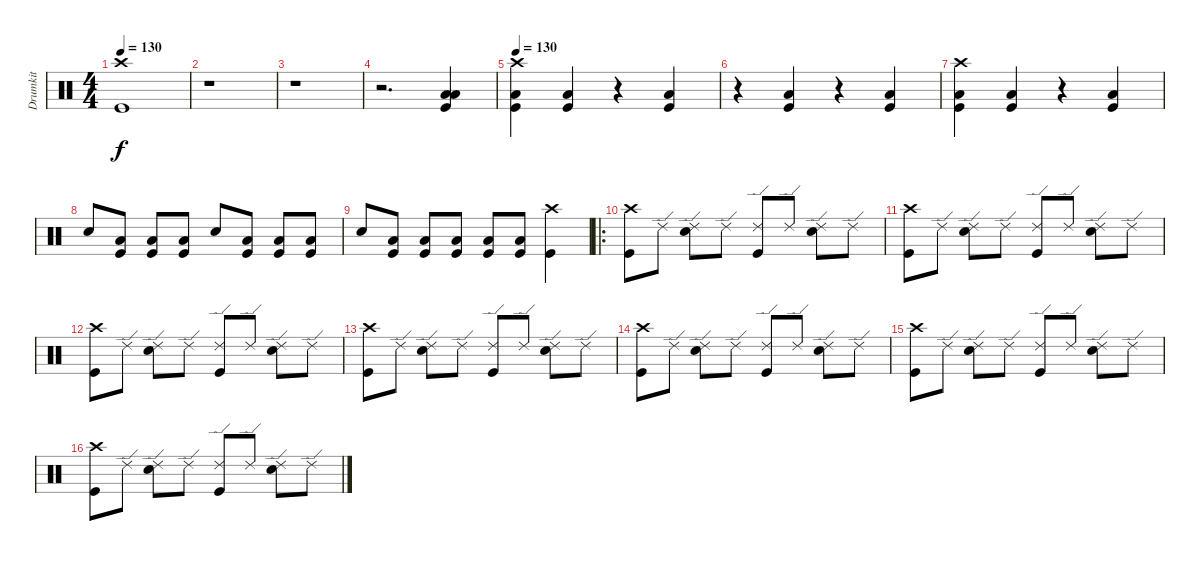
\track ("Drumkit" "Drumkit") {instrument percussion}
\staff {score}
\articulation defaults
\ts (4 4)
\tempo 130
\clef neutral
\ks c
("Crash high (hit)" "Kick (hit)").1{dy f} |
r.1 |
r.1 |
r.2{d} ("Low Tom (hit)" "Low Tom (hit)" "Kick (hit)").4 |
\tempo 130
("Crash high (hit)" "Low Tom (hit)" "Kick (hit)").4 ("Low Tom (hit)" "Kick (hit)").4 r.4 ("Low Tom (hit)" "Kick (hit)").4 |
r.4 ("Low Tom (hit)" "Kick (hit)").4 r.4 ("Low Tom (hit)" "Kick (hit)").4 |
("Crash high (hit)" "Low Tom (hit)" "Kick (hit)").4 ("Low Tom (hit)" "Kick (hit)").4 r.4 ("Low Tom (hit)" "Kick (hit)").4 |
"Electric Snare (hit)".8 ("Low Tom (hit)" "Kick (hit)").8 ("Low Tom (hit)" "Kick (hit)").8 ("Low Tom (hit)" "Kick (hit)").8 "Electric Snare (hit)".8 ("Low Tom (hit)" "Kick (hit)").8 ("Low Tom (hit)" "Kick (hit)").8 ("Low Tom (hit)" "Kick (hit)").8 |
"Electric Snare (hit)".8 ("Low Tom (hit)" "Kick (hit)").8 ("Low Tom (hit)" "Kick (hit)").8 ("Low Tom (hit)" "Kick (hit)").8 ("Low Tom (hit)" "Kick (hit)").8 ("Low Tom (hit)" "Kick (hit)").8 ("Crash high (hit)" "Kick (hit)").4 |
\ro
("Crash high (hit)" "Kick (hit)").8 "Ride (edge) 2".8 ("Ride (edge) 2" "Electric Snare (hit)").8 "Ride (edge) 2".8 ("Ride (edge) 2" "Kick (hit)").8 "Ride (edge) 2".8 ("Ride (edge) 2" "Electric Snare (hit)").8 "Ride (edge) 2".8 |
("Crash high (hit)" "Kick (hit)").8 "Ride (edge) 2".8 ("Ride (edge) 2" "Electric Snare (hit)").8 "Ride (edge) 2".8 ("Ride (edge) 2" "Kick (hit)").8 "Ride (edge) 2".8 ("Ride (edge) 2" "Electric Snare (hit)").8 "Ride (edge) 2".8 |
("Crash high (hit)" "Kick (hit)").8 "Ride (edge) 2".8 ("Ride (edge) 2" "Electric Snare (hit)").8 "Ride (edge) 2".8 ("Ride (edge) 2" "Kick (hit)").8 "Ride (edge) 2".8 ("Ride (edge) 2" "Electric Snare (hit)").8 "Ride (edge) 2".8 |
("Crash high (hit)" "Kick (hit)").8 "Ride (edge) 2".8 ("Ride (edge) 2" "Electric Snare (hit)").8 "Ride (edge) 2".8 ("Ride (edge) 2" "Kick (hit)").8 "Ride (edge) 2".8 ("Ride (edge) 2" "Electric Snare (hit)").8 "Ride (edge) 2".8 |
("Crash high (hit)" "Kick (hit)").8 "Ride (edge) 2".8 ("Ride (edge) 2" "Electric Snare (hit)").8 "Ride (edge) 2".8 ("Ride (edge) 2" "Kick (hit)").8 "Ride (edge) 2".8 ("Ride (edge) 2" "Electric Snare (hit)").8 "Ride (edge) 2".8 |
("Crash high (hit)" "Kick (hit)").8 "Ride (edge) 2".8 ("Ride (edge) 2" "Electric Snare (hit)").8 "Ride (edge) 2".8 ("Ride (edge) 2" "Kick (hit)").8 "Ride (edge) 2".8 ("Ride (edge) 2" "Electric Snare (hit)").8 "Ride (edge) 2".8 |
("Crash high (hit)" "Kick (hit)").8 "Ride (edge) 2".8 ("Ride (edge) 2" "Electric Snare (hit)").8 "Ride (edge) 2".8 ("Ride (edge) 2" "Kick (hit)").8 "Ride (edge) 2".8 ("Ride (edge) 2" "Electric Snare (hit)").8 "Ride (edge) 2".8
